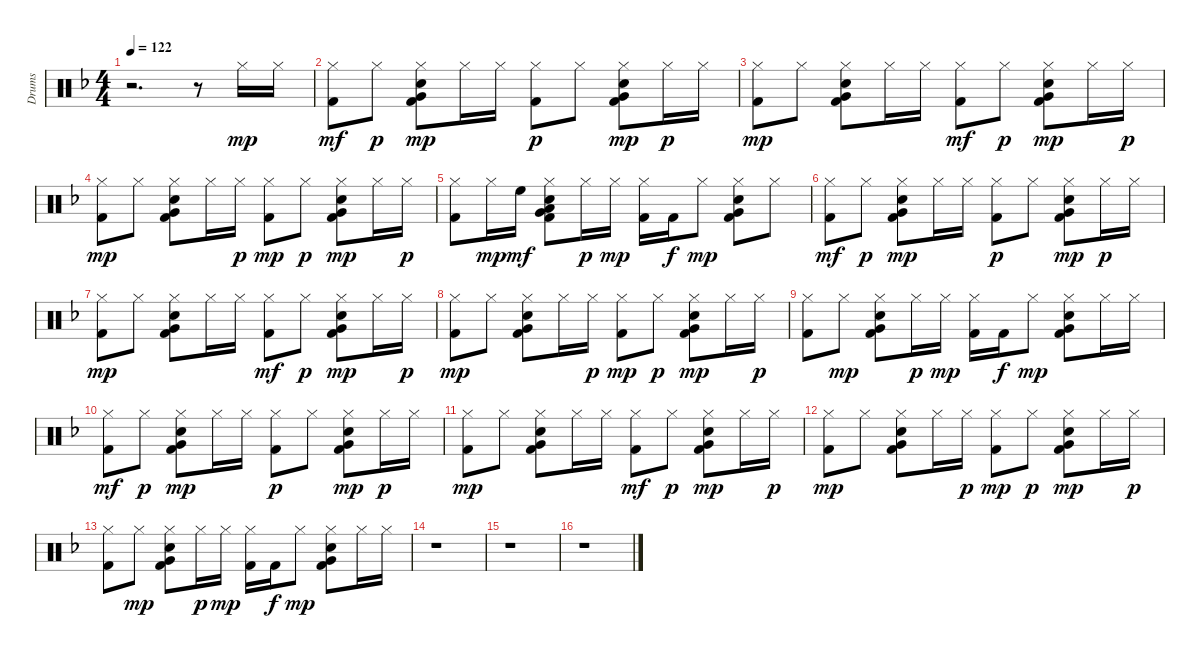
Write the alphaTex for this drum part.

\track ("Drums" "Drums") {instrument percussion}
\staff {score}
\articulation defaults
\ts (4 4)
\tempo 122
\clef neutral
\ks f
r.2{d dy mp} r.8 "Hi-Hat (closed)".16 "Hi-Hat (closed)".16 |
("Kick (hit) 2" "Hi-Hat (closed)").8{dy mf} "Hi-Hat (closed)".8{dy p} ("Kick (hit) 2" "Snare (hit) 2" "Hi-Hat (closed)" "Very Low Tom (hit)").8{dy mp} "Hi-Hat (closed)".16 "Hi-Hat (closed)".16 ("Kick (hit) 2" "Hi-Hat (closed)").8{dy p} "Hi-Hat (closed)".8 ("Kick (hit) 2" "Snare (hit) 2" "Hi-Hat (closed)" "Very Low Tom (hit)").8{dy mp} "Hi-Hat (closed)".16{dy p} "Hi-Hat (closed)".16 |
("Kick (hit) 2" "Hi-Hat (closed)").8{dy mp} "Hi-Hat (closed)".8 ("Kick (hit) 2" "Snare (hit) 2" "Hi-Hat (closed)" "Very Low Tom (hit)").8 "Hi-Hat (closed)".16 "Hi-Hat (closed)".16 ("Kick (hit) 2" "Hi-Hat (closed)").8{dy mf} "Hi-Hat (closed)".8{dy p} ("Kick (hit) 2" "Snare (hit) 2" "Hi-Hat (closed)" "Very Low Tom (hit)").8{dy mp} "Hi-Hat (closed)".16 "Hi-Hat (closed)".16{dy p} |
("Kick (hit) 2" "Hi-Hat (closed)").8{dy mp} "Hi-Hat (closed)".8 ("Kick (hit) 2" "Snare (hit) 2" "Hi-Hat (closed)" "Very Low Tom (hit)").8 "Hi-Hat (closed)".16 "Hi-Hat (closed)".16{dy p} ("Kick (hit) 2" "Hi-Hat (closed)").8{dy mp} "Hi-Hat (closed)".8{dy p} ("Kick (hit) 2" "Snare (hit) 2" "Hi-Hat (closed)" "Very Low Tom (hit)").8{dy mp} "Hi-Hat (closed)".16 "Hi-Hat (closed)".16{dy p} |
("Kick (hit) 2" "Hi-Hat (closed)").8 "Hi-Hat (closed)".16{dy mp} "High Floor Tom (hit)".16{dy mf} ("Kick (hit) 2" "Snare (hit) 2" "Hi-Hat (closed)" "Very Low Tom (hit)" "Low Tom (hit)").8 "Hi-Hat (closed)".16{dy p} "Hi-Hat (closed)".16{dy mp} ("Kick (hit) 2" "Hi-Hat (closed)").16 "Kick (hit) 2".16{dy f} "Hi-Hat (closed)".8{dy mp} ("Kick (hit) 2" "Snare (hit) 2" "Hi-Hat (closed)" "Very Low Tom (hit)").8 "Hi-Hat (closed)".8 |
("Kick (hit) 2" "Hi-Hat (closed)").8{dy mf} "Hi-Hat (closed)".8{dy p} ("Kick (hit) 2" "Snare (hit) 2" "Hi-Hat (closed)" "Very Low Tom (hit)").8{dy mp} "Hi-Hat (closed)".16 "Hi-Hat (closed)".16 ("Kick (hit) 2" "Hi-Hat (closed)").8{dy p} "Hi-Hat (closed)".8 ("Kick (hit) 2" "Snare (hit) 2" "Hi-Hat (closed)" "Very Low Tom (hit)").8{dy mp} "Hi-Hat (closed)".16{dy p} "Hi-Hat (closed)".16 |
("Kick (hit) 2" "Hi-Hat (closed)").8{dy mp} "Hi-Hat (closed)".8 ("Kick (hit) 2" "Snare (hit) 2" "Hi-Hat (closed)" "Very Low Tom (hit)").8 "Hi-Hat (closed)".16 "Hi-Hat (closed)".16 ("Kick (hit) 2" "Hi-Hat (closed)").8{dy mf} "Hi-Hat (closed)".8{dy p} ("Kick (hit) 2" "Snare (hit) 2" "Hi-Hat (closed)" "Very Low Tom (hit)").8{dy mp} "Hi-Hat (closed)".16 "Hi-Hat (closed)".16{dy p} |
("Kick (hit) 2" "Hi-Hat (closed)").8{dy mp} "Hi-Hat (closed)".8 ("Kick (hit) 2" "Snare (hit) 2" "Hi-Hat (closed)" "Very Low Tom (hit)").8 "Hi-Hat (closed)".16 "Hi-Hat (closed)".16{dy p} ("Kick (hit) 2" "Hi-Hat (closed)").8{dy mp} "Hi-Hat (closed)".8{dy p} ("Kick (hit) 2" "Snare (hit) 2" "Hi-Hat (closed)" "Very Low Tom (hit)").8{dy mp} "Hi-Hat (closed)".16 "Hi-Hat (closed)".16{dy p} |
("Kick (hit) 2" "Hi-Hat (closed)").8 "Hi-Hat (closed)".8{dy mp} ("Kick (hit) 2" "Snare (hit) 2" "Hi-Hat (closed)" "Very Low Tom (hit)").8 "Hi-Hat (closed)".16{dy p} "Hi-Hat (closed)".16{dy mp} ("Kick (hit) 2" "Hi-Hat (closed)").16 "Kick (hit) 2".16{dy f} "Hi-Hat (closed)".8{dy mp} ("Kick (hit) 2" "Snare (hit) 2" "Hi-Hat (closed)" "Very Low Tom (hit)").8 "Hi-Hat (closed)".16 "Hi-Hat (closed)".16 |
("Kick (hit) 2" "Hi-Hat (closed)").8{dy mf} "Hi-Hat (closed)".8{dy p} ("Kick (hit) 2" "Snare (hit) 2" "Hi-Hat (closed)" "Very Low Tom (hit)").8{dy mp} "Hi-Hat (closed)".16 "Hi-Hat (closed)".16 ("Kick (hit) 2" "Hi-Hat (closed)").8{dy p} "Hi-Hat (closed)".8 ("Kick (hit) 2" "Snare (hit) 2" "Hi-Hat (closed)" "Very Low Tom (hit)").8{dy mp} "Hi-Hat (closed)".16{dy p} "Hi-Hat (closed)".16 |
("Kick (hit) 2" "Hi-Hat (closed)").8{dy mp} "Hi-Hat (closed)".8 ("Kick (hit) 2" "Snare (hit) 2" "Hi-Hat (closed)" "Very Low Tom (hit)").8 "Hi-Hat (closed)".16 "Hi-Hat (closed)".16 ("Kick (hit) 2" "Hi-Hat (closed)").8{dy mf} "Hi-Hat (closed)".8{dy p} ("Kick (hit) 2" "Snare (hit) 2" "Hi-Hat (closed)" "Very Low Tom (hit)").8{dy mp} "Hi-Hat (closed)".16 "Hi-Hat (closed)".16{dy p} |
("Kick (hit) 2" "Hi-Hat (closed)").8{dy mp} "Hi-Hat (closed)".8 ("Kick (hit) 2" "Snare (hit) 2" "Hi-Hat (closed)" "Very Low Tom (hit)").8 "Hi-Hat (closed)".16 "Hi-Hat (closed)".16{dy p} ("Kick (hit) 2" "Hi-Hat (closed)").8{dy mp} "Hi-Hat (closed)".8{dy p} ("Kick (hit) 2" "Snare (hit) 2" "Hi-Hat (closed)" "Very Low Tom (hit)").8{dy mp} "Hi-Hat (closed)".16 "Hi-Hat (closed)".16{dy p} |
("Kick (hit) 2" "Hi-Hat (closed)").8 "Hi-Hat (closed)".8{dy mp} ("Kick (hit) 2" "Snare (hit) 2" "Hi-Hat (closed)" "Very Low Tom (hit)").8 "Hi-Hat (closed)".16{dy p} "Hi-Hat (closed)".16{dy mp} ("Kick (hit) 2" "Hi-Hat (closed)").16 "Kick (hit) 2".16{dy f} "Hi-Hat (closed)".8{dy mp} ("Kick (hit) 2" "Snare (hit) 2" "Hi-Hat (closed)" "Very Low Tom (hit)").8 "Hi-Hat (closed)".16 "Hi-Hat (closed)".16 |
r.1 |
r.1 |
r.1
